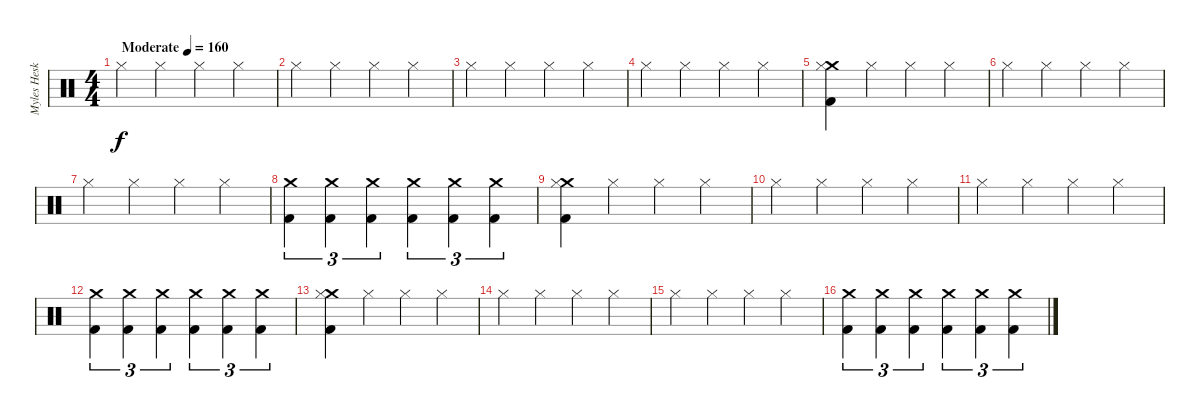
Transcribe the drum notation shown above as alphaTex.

\track ("Myles Heskett" "Myles Hesk") {instrument percussion}
\staff {score}
\articulation defaults
\ts (4 4)
\tempo (160 "Moderate")
\clef neutral
\ks c "Hi-Hat (closed)".4{dy f} "Hi-Hat (closed)".4 "Hi-Hat (closed)".4 "Hi-Hat (closed)".4
|
"Hi-Hat (closed)".4 "Hi-Hat (closed)".4 "Hi-Hat (closed)".4 "Hi-Hat (closed)".4 |
"Hi-Hat (closed)".4 "Hi-Hat (closed)".4 "Hi-Hat (closed)".4 "Hi-Hat (closed)".4 |
"Hi-Hat (closed)".4 "Hi-Hat (closed)".4 "Hi-Hat (closed)".4 "Hi-Hat (closed)".4 |
("Crash medium (hit)" "Kick (hit) 2" "Hi-Hat (closed)").4 "Hi-Hat (closed)".4 "Hi-Hat (closed)".4 "Hi-Hat (closed)".4 |
"Hi-Hat (closed)".4 "Hi-Hat (closed)".4 "Hi-Hat (closed)".4 "Hi-Hat (closed)".4 |
"Hi-Hat (closed)".4 "Hi-Hat (closed)".4 "Hi-Hat (closed)".4 "Hi-Hat (closed)".4 |
("Kick (hit) 2" "Crash medium (hit)").4{tu (3 2)} ("Kick (hit) 2" "Crash medium (hit)").4{tu (3 2)} ("Kick (hit) 2" "Crash medium (hit)").4{tu (3 2)} ("Kick (hit) 2" "Crash medium (hit)").4{tu (3 2)} ("Kick (hit) 2" "Crash medium (hit)").4{tu (3 2)} ("Kick (hit) 2" "Crash medium (hit)").4{tu (3 2)} |
("Kick (hit) 2" "Crash medium (hit)" "Hi-Hat (closed)").4 "Hi-Hat (closed)".4 "Hi-Hat (closed)".4 "Hi-Hat (closed)".4 |
"Hi-Hat (closed)".4 "Hi-Hat (closed)".4 "Hi-Hat (closed)".4 "Hi-Hat (closed)".4 |
"Hi-Hat (closed)".4 "Hi-Hat (closed)".4 "Hi-Hat (closed)".4 "Hi-Hat (closed)".4 |
("Kick (hit) 2" "Crash medium (hit)").4{tu (3 2)} ("Kick (hit) 2" "Crash medium (hit)").4{tu (3 2)} ("Kick (hit) 2" "Crash medium (hit)").4{tu (3 2)} ("Kick (hit) 2" "Crash medium (hit)").4{tu (3 2)} ("Kick (hit) 2" "Crash medium (hit)").4{tu (3 2)} ("Kick (hit) 2" "Crash medium (hit)").4{tu (3 2)} |
("Kick (hit) 2" "Crash medium (hit)" "Hi-Hat (closed)").4 "Hi-Hat (closed)".4 "Hi-Hat (closed)".4 "Hi-Hat (closed)".4 |
"Hi-Hat (closed)".4 "Hi-Hat (closed)".4 "Hi-Hat (closed)".4 "Hi-Hat (closed)".4 |
"Hi-Hat (closed)".4 "Hi-Hat (closed)".4 "Hi-Hat (closed)".4 "Hi-Hat (closed)".4 |
("Kick (hit) 2" "Crash medium (hit)").4{tu (3 2)} ("Kick (hit) 2" "Crash medium (hit)").4{tu (3 2)} ("Kick (hit) 2" "Crash medium (hit)").4{tu (3 2)} ("Kick (hit) 2" "Crash medium (hit)").4{tu (3 2)} ("Kick (hit) 2" "Crash medium (hit)").4{tu (3 2)} ("Kick (hit) 2" "Crash medium (hit)").4{tu (3 2)}
